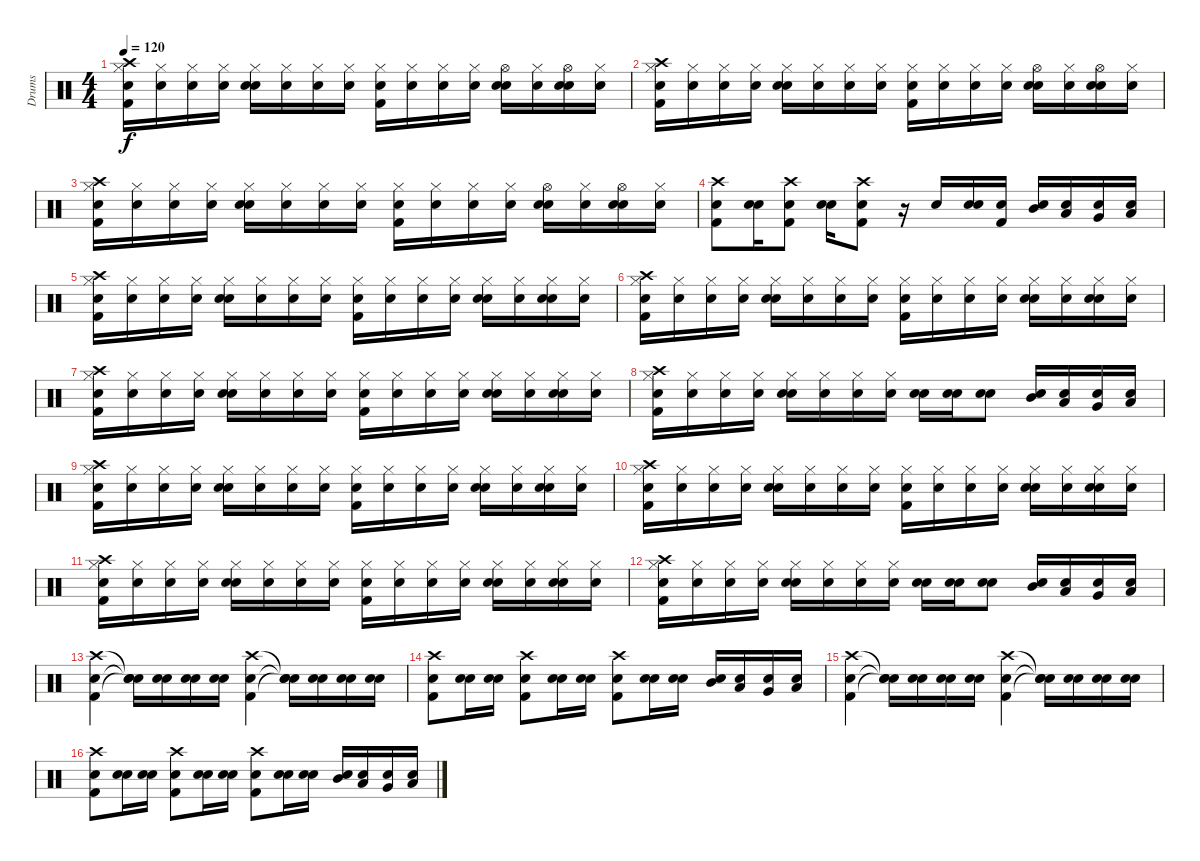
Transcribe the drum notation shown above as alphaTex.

\track ("Drums" "Drums") {instrument percussion}
\staff {score}
\articulation defaults
\ts (4 4)
\tempo 120
\clef neutral
\ks c
("Snare (hit)" "Kick (hit) 2" "Hi-Hat (closed)" "Crash high (hit)").16{dy f} ("Snare (hit)" "Hi-Hat (closed)").16 ("Snare (hit)" "Hi-Hat (closed)").16 ("Snare (hit)" "Hi-Hat (closed)").16 ("Snare (hit)" "Snare (hit) 2" "Hi-Hat (closed)").16 ("Snare (hit)" "Hi-Hat (closed)").16 ("Snare (hit)" "Hi-Hat (closed)").16 ("Snare (hit)" "Hi-Hat (closed)").16 ("Snare (hit)" "Kick (hit) 2" "Hi-Hat (closed)").16 ("Snare (hit)" "Hi-Hat (closed)").16 ("Snare (hit)" "Hi-Hat (closed)").16 ("Snare (hit)" "Hi-Hat (closed)").16 ("Snare (hit)" "Snare (hit) 2" "Hi-Hat (open)").16 ("Snare (hit)" "Hi-Hat (closed)").16 ("Snare (hit)" "Snare (hit) 2" "Hi-Hat (open)").16 ("Snare (hit)" "Hi-Hat (closed)").16 |
("Snare (hit)" "Kick (hit) 2" "Hi-Hat (closed)" "Crash high (hit)").16 ("Snare (hit)" "Hi-Hat (closed)").16 ("Snare (hit)" "Hi-Hat (closed)").16 ("Snare (hit)" "Hi-Hat (closed)").16 ("Snare (hit)" "Snare (hit) 2" "Hi-Hat (closed)").16 ("Snare (hit)" "Hi-Hat (closed)").16 ("Snare (hit)" "Hi-Hat (closed)").16 ("Snare (hit)" "Hi-Hat (closed)").16 ("Snare (hit)" "Kick (hit) 2" "Hi-Hat (closed)").16 ("Snare (hit)" "Hi-Hat (closed)").16 ("Snare (hit)" "Hi-Hat (closed)").16 ("Snare (hit)" "Hi-Hat (closed)").16 ("Snare (hit)" "Snare (hit) 2" "Hi-Hat (open)").16 ("Snare (hit)" "Hi-Hat (closed)").16 ("Snare (hit)" "Snare (hit) 2" "Hi-Hat (open)").16 ("Snare (hit)" "Hi-Hat (closed)").16 |
("Snare (hit)" "Kick (hit) 2" "Hi-Hat (closed)" "Crash high (hit)").16 ("Snare (hit)" "Hi-Hat (closed)").16 ("Snare (hit)" "Hi-Hat (closed)").16 ("Snare (hit)" "Hi-Hat (closed)").16 ("Snare (hit)" "Snare (hit) 2" "Hi-Hat (closed)").16 ("Snare (hit)" "Hi-Hat (closed)").16 ("Snare (hit)" "Hi-Hat (closed)").16 ("Snare (hit)" "Hi-Hat (closed)").16 ("Snare (hit)" "Kick (hit) 2" "Hi-Hat (closed)").16 ("Snare (hit)" "Hi-Hat (closed)").16 ("Snare (hit)" "Hi-Hat (closed)").16 ("Snare (hit)" "Hi-Hat (closed)").16 ("Snare (hit)" "Snare (hit) 2" "Hi-Hat (open)").16 ("Snare (hit)" "Hi-Hat (closed)").16 ("Snare (hit)" "Snare (hit) 2" "Hi-Hat (open)").16 ("Snare (hit)" "Hi-Hat (closed)").16 |
("Snare (hit)" "Kick (hit) 2" "Crash high (hit)").8 ("Snare (hit)" "Snare (hit) 2").16 ("Snare (hit)" "Kick (hit) 2" "Crash high (hit)").8 ("Snare (hit)" "Snare (hit) 2").16 ("Snare (hit)" "Kick (hit) 2" "Crash high (hit)").8 r.16 "Snare (hit) 2".16 ("Snare (hit)" "Snare (hit) 2").16 ("Snare (hit)" "Kick (hit) 2").16 ("Snare (hit)" "Mid Tom (hit)").16 ("Snare (hit)" "Low Tom (hit)").16 ("Snare (hit)" "Very Low Tom (hit)").16 ("Snare (hit)" "Low Floor Tom (hit)").16 |
("Snare (hit)" "Kick (hit) 2" "Hi-Hat (closed)" "Crash high (hit)").16 ("Snare (hit)" "Hi-Hat (closed)").16 ("Snare (hit)" "Hi-Hat (closed)").16 ("Snare (hit)" "Hi-Hat (closed)").16 ("Snare (hit)" "Snare (hit) 2" "Hi-Hat (closed)").16 ("Snare (hit)" "Hi-Hat (closed)").16 ("Snare (hit)" "Hi-Hat (closed)").16 ("Snare (hit)" "Hi-Hat (closed)").16 ("Snare (hit)" "Kick (hit) 2" "Hi-Hat (closed)").16 ("Snare (hit)" "Hi-Hat (closed)").16 ("Snare (hit)" "Hi-Hat (closed)").16 ("Snare (hit)" "Hi-Hat (closed)").16 ("Snare (hit)" "Snare (hit) 2" "Hi-Hat (closed)").16 ("Snare (hit)" "Hi-Hat (closed)").16 ("Snare (hit)" "Snare (hit) 2" "Hi-Hat (closed)").16 ("Snare (hit)" "Hi-Hat (closed)").16 |
("Snare (hit)" "Kick (hit) 2" "Hi-Hat (closed)" "Crash high (hit)").16 ("Snare (hit)" "Hi-Hat (closed)").16 ("Snare (hit)" "Hi-Hat (closed)").16 ("Snare (hit)" "Hi-Hat (closed)").16 ("Snare (hit)" "Snare (hit) 2" "Hi-Hat (closed)").16 ("Snare (hit)" "Hi-Hat (closed)").16 ("Snare (hit)" "Hi-Hat (closed)").16 ("Snare (hit)" "Hi-Hat (closed)").16 ("Snare (hit)" "Kick (hit) 2" "Hi-Hat (closed)").16 ("Snare (hit)" "Hi-Hat (closed)").16 ("Snare (hit)" "Hi-Hat (closed)").16 ("Snare (hit)" "Hi-Hat (closed)").16 ("Snare (hit)" "Snare (hit) 2" "Hi-Hat (closed)").16 ("Snare (hit)" "Hi-Hat (closed)").16 ("Snare (hit)" "Snare (hit) 2" "Hi-Hat (closed)").16 ("Snare (hit)" "Hi-Hat (closed)").16 |
("Snare (hit)" "Kick (hit) 2" "Hi-Hat (closed)" "Crash high (hit)").16 ("Snare (hit)" "Hi-Hat (closed)").16 ("Snare (hit)" "Hi-Hat (closed)").16 ("Snare (hit)" "Hi-Hat (closed)").16 ("Snare (hit)" "Snare (hit) 2" "Hi-Hat (closed)").16 ("Snare (hit)" "Hi-Hat (closed)").16 ("Snare (hit)" "Hi-Hat (closed)").16 ("Snare (hit)" "Hi-Hat (closed)").16 ("Snare (hit)" "Kick (hit) 2" "Hi-Hat (closed)").16 ("Snare (hit)" "Hi-Hat (closed)").16 ("Snare (hit)" "Hi-Hat (closed)").16 ("Snare (hit)" "Hi-Hat (closed)").16 ("Snare (hit)" "Snare (hit) 2" "Hi-Hat (closed)").16 ("Snare (hit)" "Hi-Hat (closed)").16 ("Snare (hit)" "Snare (hit) 2" "Hi-Hat (closed)").16 ("Snare (hit)" "Hi-Hat (closed)").16 |
("Snare (hit)" "Kick (hit) 2" "Hi-Hat (closed)" "Crash high (hit)").16 ("Snare (hit)" "Hi-Hat (closed)").16 ("Snare (hit)" "Hi-Hat (closed)").16 ("Snare (hit)" "Hi-Hat (closed)").16 ("Snare (hit)" "Snare (hit) 2" "Hi-Hat (closed)").16 ("Snare (hit)" "Hi-Hat (closed)").16 ("Snare (hit)" "Hi-Hat (closed)").16 ("Snare (hit)" "Hi-Hat (closed)").16 ("Snare (hit)" "Snare (hit) 2").16 ("Snare (hit)" "Snare (hit) 2").16 ("Snare (hit)" "Snare (hit) 2").8 ("Snare (hit)" "Mid Tom (hit)").16 ("Snare (hit)" "Low Tom (hit)").16 ("Snare (hit)" "Very Low Tom (hit)").16 ("Snare (hit)" "Low Floor Tom (hit)").16 |
("Snare (hit)" "Kick (hit) 2" "Hi-Hat (closed)" "Crash high (hit)").16 ("Snare (hit)" "Hi-Hat (closed)").16 ("Snare (hit)" "Hi-Hat (closed)").16 ("Snare (hit)" "Hi-Hat (closed)").16 ("Snare (hit)" "Snare (hit) 2" "Hi-Hat (closed)").16 ("Snare (hit)" "Hi-Hat (closed)").16 ("Snare (hit)" "Hi-Hat (closed)").16 ("Snare (hit)" "Hi-Hat (closed)").16 ("Snare (hit)" "Kick (hit) 2" "Hi-Hat (closed)").16 ("Snare (hit)" "Hi-Hat (closed)").16 ("Snare (hit)" "Hi-Hat (closed)").16 ("Snare (hit)" "Hi-Hat (closed)").16 ("Snare (hit)" "Snare (hit) 2" "Hi-Hat (closed)").16 ("Snare (hit)" "Hi-Hat (closed)").16 ("Snare (hit)" "Snare (hit) 2" "Hi-Hat (closed)").16 ("Snare (hit)" "Hi-Hat (closed)").16 |
("Snare (hit)" "Kick (hit) 2" "Hi-Hat (closed)" "Crash high (hit)").16 ("Snare (hit)" "Hi-Hat (closed)").16 ("Snare (hit)" "Hi-Hat (closed)").16 ("Snare (hit)" "Hi-Hat (closed)").16 ("Snare (hit)" "Snare (hit) 2" "Hi-Hat (closed)").16 ("Snare (hit)" "Hi-Hat (closed)").16 ("Snare (hit)" "Hi-Hat (closed)").16 ("Snare (hit)" "Hi-Hat (closed)").16 ("Snare (hit)" "Kick (hit) 2" "Hi-Hat (closed)").16 ("Snare (hit)" "Hi-Hat (closed)").16 ("Snare (hit)" "Hi-Hat (closed)").16 ("Snare (hit)" "Hi-Hat (closed)").16 ("Snare (hit)" "Snare (hit) 2" "Hi-Hat (closed)").16 ("Snare (hit)" "Hi-Hat (closed)").16 ("Snare (hit)" "Snare (hit) 2" "Hi-Hat (closed)").16 ("Snare (hit)" "Hi-Hat (closed)").16 |
("Snare (hit)" "Kick (hit) 2" "Hi-Hat (closed)" "Crash high (hit)").16 ("Snare (hit)" "Hi-Hat (closed)").16 ("Snare (hit)" "Hi-Hat (closed)").16 ("Snare (hit)" "Hi-Hat (closed)").16 ("Snare (hit)" "Snare (hit) 2" "Hi-Hat (closed)").16 ("Snare (hit)" "Hi-Hat (closed)").16 ("Snare (hit)" "Hi-Hat (closed)").16 ("Snare (hit)" "Hi-Hat (closed)").16 ("Snare (hit)" "Kick (hit) 2" "Hi-Hat (closed)").16 ("Snare (hit)" "Hi-Hat (closed)").16 ("Snare (hit)" "Hi-Hat (closed)").16 ("Snare (hit)" "Hi-Hat (closed)").16 ("Snare (hit)" "Snare (hit) 2" "Hi-Hat (closed)").16 ("Snare (hit)" "Hi-Hat (closed)").16 ("Snare (hit)" "Snare (hit) 2" "Hi-Hat (closed)").16 ("Snare (hit)" "Hi-Hat (closed)").16 |
("Snare (hit)" "Kick (hit) 2" "Hi-Hat (closed)" "Crash high (hit)").16 ("Snare (hit)" "Hi-Hat (closed)").16 ("Snare (hit)" "Hi-Hat (closed)").16 ("Snare (hit)" "Hi-Hat (closed)").16 ("Snare (hit)" "Snare (hit) 2" "Hi-Hat (closed)").16 ("Snare (hit)" "Hi-Hat (closed)").16 ("Snare (hit)" "Hi-Hat (closed)").16 ("Snare (hit)" "Hi-Hat (closed)").16 ("Snare (hit)" "Snare (hit) 2").16 ("Snare (hit)" "Snare (hit) 2").16 ("Snare (hit)" "Snare (hit) 2").8 ("Snare (hit)" "Mid Tom (hit)").16 ("Snare (hit)" "Low Tom (hit)").16 ("Snare (hit)" "Very Low Tom (hit)").16 ("Snare (hit)" "Low Floor Tom (hit)").16 |
("Snare (hit)" "Kick (hit) 2" "Crash high (hit)").4 ("Snare (hit)"{t} "Snare (hit)"{t} "Snare (hit)"{t}).16 ("Snare (hit)" "Snare (hit) 2").16 ("Snare (hit)" "Snare (hit) 2").16 ("Snare (hit)" "Snare (hit) 2").16 ("Snare (hit)" "Kick (hit) 2" "Crash high (hit)").4 ("Snare (hit)"{t} "Snare (hit)"{t} "Snare (hit)"{t}).16 ("Snare (hit)" "Snare (hit) 2").16 ("Snare (hit)" "Snare (hit) 2").16 ("Snare (hit)" "Snare (hit) 2").16 |
("Snare (hit)" "Kick (hit) 2" "Crash high (hit)").8 ("Snare (hit)" "Snare (hit) 2").16 ("Snare (hit)" "Snare (hit) 2").16 ("Snare (hit)" "Kick (hit) 2" "Crash high (hit)").8 ("Snare (hit)" "Snare (hit) 2").16 ("Snare (hit)" "Snare (hit) 2").16 ("Snare (hit)" "Kick (hit) 2" "Crash high (hit)").8 ("Snare (hit)" "Snare (hit) 2").16 ("Snare (hit)" "Snare (hit) 2").16 ("Snare (hit)" "Mid Tom (hit)").16 ("Snare (hit)" "Low Tom (hit)").16 ("Snare (hit)" "Very Low Tom (hit)").16 ("Snare (hit)" "Low Floor Tom (hit)").16 |
("Snare (hit)" "Kick (hit) 2" "Crash high (hit)").4 ("Snare (hit)"{t} "Snare (hit)"{t} "Snare (hit)"{t}).16 ("Snare (hit)" "Snare (hit) 2").16 ("Snare (hit)" "Snare (hit) 2").16 ("Snare (hit)" "Snare (hit) 2").16 ("Snare (hit)" "Kick (hit) 2" "Crash high (hit)").4 ("Snare (hit)"{t} "Snare (hit)"{t} "Snare (hit)"{t}).16 ("Snare (hit)" "Snare (hit) 2").16 ("Snare (hit)" "Snare (hit) 2").16 ("Snare (hit)" "Snare (hit) 2").16 |
("Snare (hit)" "Kick (hit) 2" "Crash high (hit)").8 ("Snare (hit)" "Snare (hit) 2").16 ("Snare (hit)" "Snare (hit) 2").16 ("Snare (hit)" "Kick (hit) 2" "Crash high (hit)").8 ("Snare (hit)" "Snare (hit) 2").16 ("Snare (hit)" "Snare (hit) 2").16 ("Snare (hit)" "Kick (hit) 2" "Crash high (hit)").8 ("Snare (hit)" "Snare (hit) 2").16 ("Snare (hit)" "Snare (hit) 2").16 ("Snare (hit)" "Mid Tom (hit)").16 ("Snare (hit)" "Low Tom (hit)").16 ("Snare (hit)" "Very Low Tom (hit)").16 ("Snare (hit)" "Low Floor Tom (hit)").16
